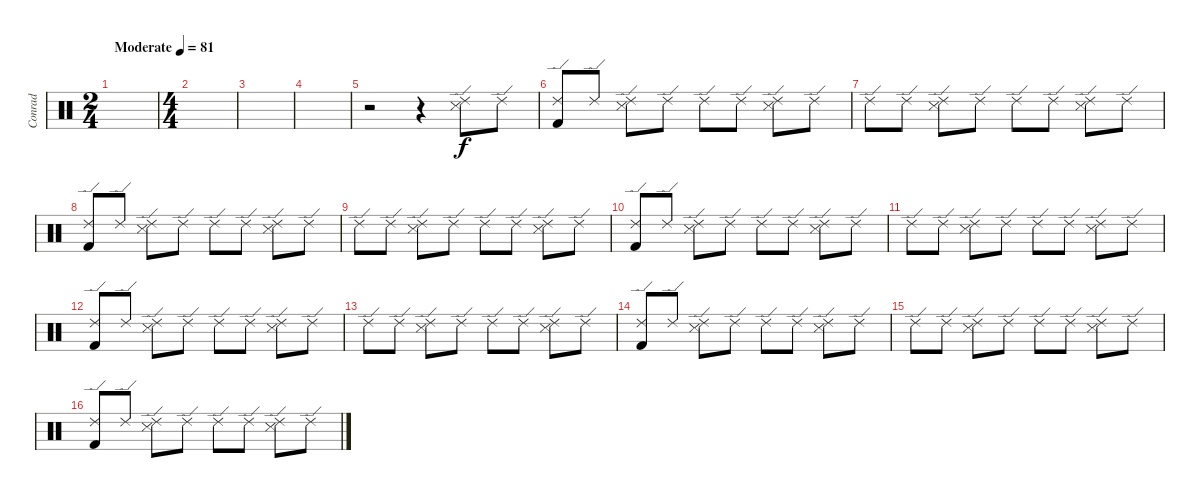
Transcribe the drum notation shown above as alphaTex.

\track ("Conrad" "Conrad") {instrument percussion}
\staff {score}
\articulation defaults
\ts (2 4)
\tempo (81 "Moderate")
\clef neutral
\ks c
|
\ts (4 4)
|
|
|
r.2 r.4 ("Ride (edge) 2" "Snare (side stick) 3").8 "Ride (edge) 2".8 |
("Ride (edge) 2" "Kick (hit) 2").8 "Ride (edge) 2".8 ("Ride (edge) 2" "Snare (side stick) 3").8 "Ride (edge) 2".8 "Ride (edge) 2".8 "Ride (edge) 2".8 ("Ride (edge) 2" "Snare (side stick) 3").8 "Ride (edge) 2".8 |
"Ride (edge) 2".8 "Ride (edge) 2".8 ("Ride (edge) 2" "Snare (side stick) 3").8 "Ride (edge) 2".8 "Ride (edge) 2".8 "Ride (edge) 2".8 ("Ride (edge) 2" "Snare (side stick) 3").8 "Ride (edge) 2".8 |
("Ride (edge) 2" "Kick (hit) 2").8 "Ride (edge) 2".8 ("Ride (edge) 2" "Snare (side stick) 3").8 "Ride (edge) 2".8 "Ride (edge) 2".8 "Ride (edge) 2".8 ("Ride (edge) 2" "Snare (side stick) 3").8 "Ride (edge) 2".8 |
"Ride (edge) 2".8 "Ride (edge) 2".8 ("Ride (edge) 2" "Snare (side stick) 3").8 "Ride (edge) 2".8 "Ride (edge) 2".8 "Ride (edge) 2".8 ("Ride (edge) 2" "Snare (side stick) 3").8 "Ride (edge) 2".8 |
("Ride (edge) 2" "Kick (hit) 2").8 "Ride (edge) 2".8 ("Ride (edge) 2" "Snare (side stick) 3").8 "Ride (edge) 2".8 "Ride (edge) 2".8 "Ride (edge) 2".8 ("Ride (edge) 2" "Snare (side stick) 3").8 "Ride (edge) 2".8 |
"Ride (edge) 2".8 "Ride (edge) 2".8 ("Ride (edge) 2" "Snare (side stick) 3").8 "Ride (edge) 2".8 "Ride (edge) 2".8 "Ride (edge) 2".8 ("Ride (edge) 2" "Snare (side stick) 3").8 "Ride (edge) 2".8 |
("Ride (edge) 2" "Kick (hit) 2").8 "Ride (edge) 2".8 ("Ride (edge) 2" "Snare (side stick) 3").8 "Ride (edge) 2".8 "Ride (edge) 2".8 "Ride (edge) 2".8 ("Ride (edge) 2" "Snare (side stick) 3").8 "Ride (edge) 2".8 |
"Ride (edge) 2".8 "Ride (edge) 2".8 ("Ride (edge) 2" "Snare (side stick) 3").8 "Ride (edge) 2".8 "Ride (edge) 2".8 "Ride (edge) 2".8 ("Ride (edge) 2" "Snare (side stick) 3").8 "Ride (edge) 2".8 |
("Ride (edge) 2" "Kick (hit) 2").8 "Ride (edge) 2".8 ("Ride (edge) 2" "Snare (side stick) 3").8 "Ride (edge) 2".8 "Ride (edge) 2".8 "Ride (edge) 2".8 ("Ride (edge) 2" "Snare (side stick) 3").8 "Ride (edge) 2".8 |
"Ride (edge) 2".8 "Ride (edge) 2".8 ("Ride (edge) 2" "Snare (side stick) 3").8 "Ride (edge) 2".8 "Ride (edge) 2".8 "Ride (edge) 2".8 ("Ride (edge) 2" "Snare (side stick) 3").8 "Ride (edge) 2".8 |
("Ride (edge) 2" "Kick (hit) 2").8 "Ride (edge) 2".8 ("Ride (edge) 2" "Snare (side stick) 3").8 "Ride (edge) 2".8 "Ride (edge) 2".8 "Ride (edge) 2".8 ("Ride (edge) 2" "Snare (side stick) 3").8 "Ride (edge) 2".8
